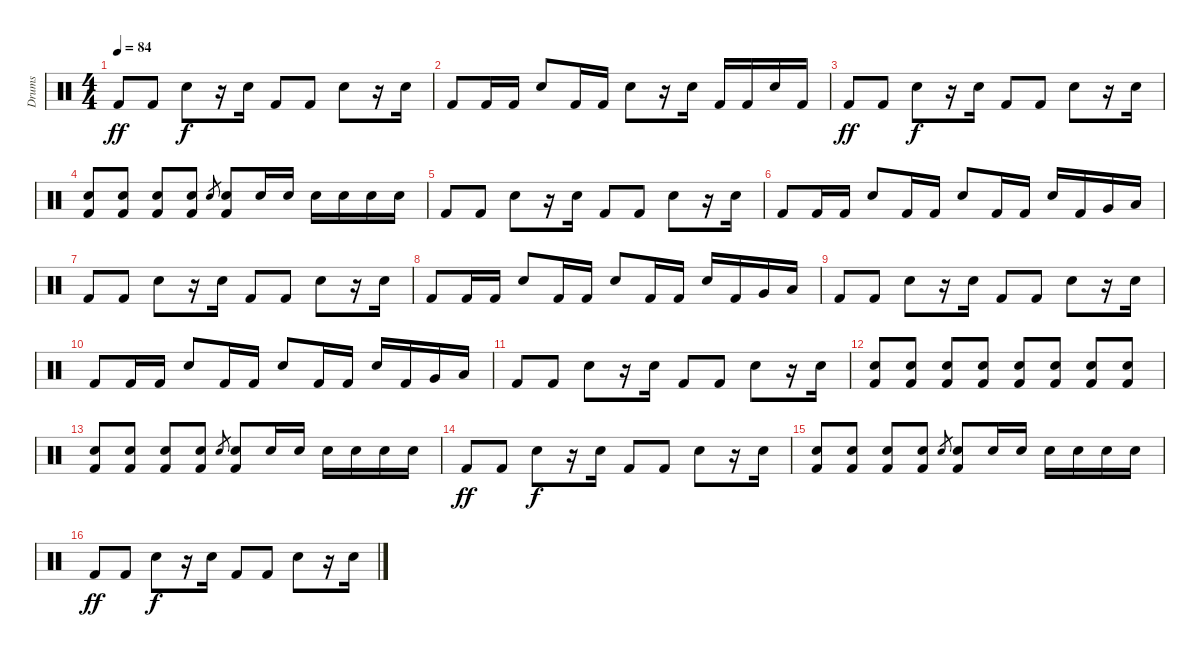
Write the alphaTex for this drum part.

\track ("Drums" "Drums") {instrument percussion}
\staff {score}
\articulation defaults
\ts (4 4)
\tempo 84
\clef neutral
\ks c "Kick (hit) 2".8{dy ff} "Kick (hit) 2".8 "Snare (hit) 2".8{dy f}
r.16 "Snare (hit) 2".16 "Kick (hit) 2".8 "Kick (hit) 2".8 "Snare (hit) 2".8 r.16 "Snare (hit) 2".16 |
"Kick (hit) 2".8 "Kick (hit) 2".16 "Kick (hit) 2".16 "Snare (hit) 2".8 "Kick (hit) 2".16 "Kick (hit) 2".16 "Snare (hit) 2".8 r.16 "Snare (hit) 2".16 "Kick (hit) 2".16 "Kick (hit) 2".16 "Snare (hit) 2".16 "Kick (hit) 2".16 |
"Kick (hit) 2".8{dy ff} "Kick (hit) 2".8 "Snare (hit) 2".8{dy f} r.16 "Snare (hit) 2".16 "Kick (hit) 2".8 "Kick (hit) 2".8 "Snare (hit) 2".8 r.16 "Snare (hit) 2".16 |
("Snare (hit) 2" "Kick (hit) 2").8 ("Snare (hit) 2" "Kick (hit) 2").8 ("Snare (hit) 2" "Kick (hit) 2").8 ("Snare (hit) 2" "Kick (hit) 2").8 "Snare (hit) 2".8{gr} ("Snare (hit) 2" "Kick (hit) 2").8 "Snare (hit) 2".16 "Snare (hit) 2".16 "Snare (hit) 2".16 "Snare (hit) 2".16 "Snare (hit) 2".16 "Snare (hit) 2".16 |
"Kick (hit) 2".8 "Kick (hit) 2".8 "Snare (hit) 2".8 r.16 "Snare (hit) 2".16 "Kick (hit) 2".8 "Kick (hit) 2".8 "Snare (hit) 2".8 r.16 "Snare (hit) 2".16 |
"Kick (hit) 2".8 "Kick (hit) 2".16 "Kick (hit) 2".16 "Snare (hit) 2".8 "Kick (hit) 2".16 "Kick (hit) 2".16 "Snare (hit) 2".8 "Kick (hit) 2".16 "Kick (hit) 2".16 "Snare (hit) 2".16 "Kick (hit) 2".16 "Very Low Tom (hit)".16 "Low Floor Tom (hit)".16 |
"Kick (hit) 2".8 "Kick (hit) 2".8 "Snare (hit) 2".8 r.16 "Snare (hit) 2".16 "Kick (hit) 2".8 "Kick (hit) 2".8 "Snare (hit) 2".8 r.16 "Snare (hit) 2".16 |
"Kick (hit) 2".8 "Kick (hit) 2".16 "Kick (hit) 2".16 "Snare (hit) 2".8 "Kick (hit) 2".16 "Kick (hit) 2".16 "Snare (hit) 2".8 "Kick (hit) 2".16 "Kick (hit) 2".16 "Snare (hit) 2".16 "Kick (hit) 2".16 "Very Low Tom (hit)".16 "Low Floor Tom (hit)".16 |
"Kick (hit) 2".8 "Kick (hit) 2".8 "Snare (hit) 2".8 r.16 "Snare (hit) 2".16 "Kick (hit) 2".8 "Kick (hit) 2".8 "Snare (hit) 2".8 r.16 "Snare (hit) 2".16 |
"Kick (hit) 2".8 "Kick (hit) 2".16 "Kick (hit) 2".16 "Snare (hit) 2".8 "Kick (hit) 2".16 "Kick (hit) 2".16 "Snare (hit) 2".8 "Kick (hit) 2".16 "Kick (hit) 2".16 "Snare (hit) 2".16 "Kick (hit) 2".16 "Very Low Tom (hit)".16 "Low Floor Tom (hit)".16 |
"Kick (hit) 2".8 "Kick (hit) 2".8 "Snare (hit) 2".8 r.16 "Snare (hit) 2".16 "Kick (hit) 2".8 "Kick (hit) 2".8 "Snare (hit) 2".8 r.16 "Snare (hit) 2".16 |
("Snare (hit) 2" "Kick (hit) 2").8 ("Snare (hit) 2" "Kick (hit) 2").8 ("Snare (hit) 2" "Kick (hit) 2").8 ("Snare (hit) 2" "Kick (hit) 2").8 ("Snare (hit) 2" "Kick (hit) 2").8 ("Snare (hit) 2" "Kick (hit) 2").8 ("Snare (hit) 2" "Kick (hit) 2").8 ("Snare (hit) 2" "Kick (hit) 2").8 |
("Snare (hit) 2" "Kick (hit) 2").8 ("Snare (hit) 2" "Kick (hit) 2").8 ("Snare (hit) 2" "Kick (hit) 2").8 ("Snare (hit) 2" "Kick (hit) 2").8 "Snare (hit) 2".8{gr} ("Snare (hit) 2" "Kick (hit) 2").8 "Snare (hit) 2".16 "Snare (hit) 2".16 "Snare (hit) 2".16 "Snare (hit) 2".16 "Snare (hit) 2".16 "Snare (hit) 2".16 |
"Kick (hit) 2".8{dy ff} "Kick (hit) 2".8 "Snare (hit) 2".8{dy f} r.16 "Snare (hit) 2".16 "Kick (hit) 2".8 "Kick (hit) 2".8 "Snare (hit) 2".8 r.16 "Snare (hit) 2".16 |
("Snare (hit) 2" "Kick (hit) 2").8 ("Snare (hit) 2" "Kick (hit) 2").8 ("Snare (hit) 2" "Kick (hit) 2").8 ("Snare (hit) 2" "Kick (hit) 2").8 "Snare (hit) 2".8{gr} ("Snare (hit) 2" "Kick (hit) 2").8 "Snare (hit) 2".16 "Snare (hit) 2".16 "Snare (hit) 2".16 "Snare (hit) 2".16 "Snare (hit) 2".16 "Snare (hit) 2".16 |
"Kick (hit) 2".8{dy ff} "Kick (hit) 2".8 "Snare (hit) 2".8{dy f} r.16 "Snare (hit) 2".16 "Kick (hit) 2".8 "Kick (hit) 2".8 "Snare (hit) 2".8 r.16 "Snare (hit) 2".16
